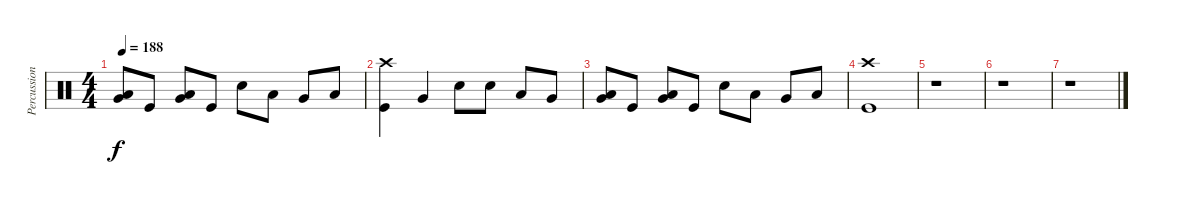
\track ("Percussion" "Percussion") {instrument percussion}
\staff {score}
\articulation defaults
\ts (4 4)
\tempo 188
\clef neutral
\ks c
("Low Floor Tom (hit)" "Very Low Tom (hit)").8{dy f} "Kick (hit)".8 ("Low Floor Tom (hit)" "Very Low Tom (hit)").8 "Kick (hit)".8 "Snare (hit) 2".8 "Low Floor Tom (hit)".8 "Very Low Tom (hit)".8 "Low Floor Tom (hit)".8 |
("Kick (hit)" "Crash high (hit)").4 "Very Low Tom (hit)".4 "Snare (hit) 2".8 "Snare (hit) 2".8 "Low Tom (hit)".8 "Very Low Tom (hit)".8 |
("Low Floor Tom (hit)" "Very Low Tom (hit)").8 "Kick (hit)".8 ("Low Floor Tom (hit)" "Very Low Tom (hit)").8 "Kick (hit)".8 "Snare (hit) 2".8 "Low Floor Tom (hit)".8 "Very Low Tom (hit)".8 "Low Floor Tom (hit)".8 |
("Kick (hit)" "Crash high (hit)").1 |
r.1 |
r.1 |
r.1
